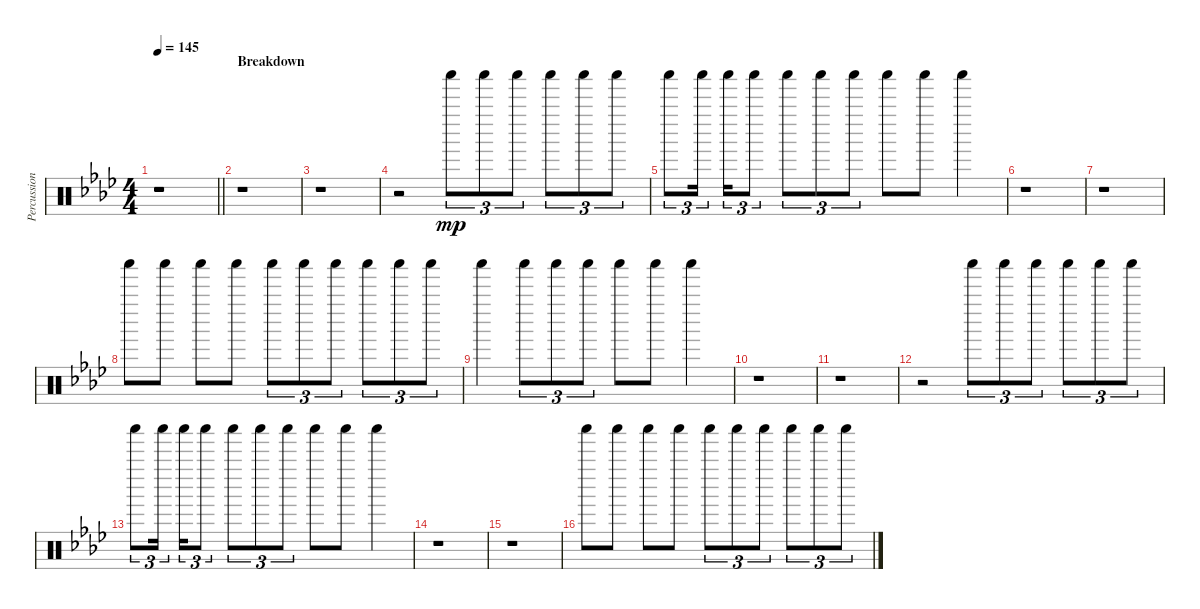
\track ("Percussion Synth" "Percussion") {instrument percussion}
\staff {score}
\articulation defaults
\ts (4 4)
\tempo 145
\clef neutral
\barLineRight lightlight
\ks ab
r.1{dy mp} |
\section ("" "Breakdown")
r.1 |
r.1 |
r.2 "Shaker (hit)".8{tu (3 2)} "Shaker (hit)".8{tu (3 2)} "Shaker (hit)".8{tu (3 2)} "Shaker (hit)".8{tu (3 2)} "Shaker (hit)".8{tu (3 2)} "Shaker (hit)".8{tu (3 2)} |
"Shaker (hit)".8{tu (3 2)} "Shaker (hit)".16{tu (3 2)} "Shaker (hit)".16{tu (3 2)} "Shaker (hit)".8{tu (3 2)} "Shaker (hit)".8{tu (3 2)} "Shaker (hit)".8{tu (3 2)} "Shaker (hit)".8{tu (3 2)} "Shaker (hit)".8 "Shaker (hit)".8 "Shaker (hit)".4 |
r.1 |
r.1 |
"Shaker (hit)".8 "Shaker (hit)".8 "Shaker (hit)".8 "Shaker (hit)".8 "Shaker (hit)".8{tu (3 2)} "Shaker (hit)".8{tu (3 2)} "Shaker (hit)".8{tu (3 2)} "Shaker (hit)".8{tu (3 2)} "Shaker (hit)".8{tu (3 2)} "Shaker (hit)".8{tu (3 2)} |
"Shaker (hit)".4 "Shaker (hit)".8{tu (3 2)} "Shaker (hit)".8{tu (3 2)} "Shaker (hit)".8{tu (3 2)} "Shaker (hit)".8 "Shaker (hit)".8 "Shaker (hit)".4 |
r.1 |
r.1 |
r.2 "Shaker (hit)".8{tu (3 2)} "Shaker (hit)".8{tu (3 2)} "Shaker (hit)".8{tu (3 2)} "Shaker (hit)".8{tu (3 2)} "Shaker (hit)".8{tu (3 2)} "Shaker (hit)".8{tu (3 2)} |
"Shaker (hit)".8{tu (3 2)} "Shaker (hit)".16{tu (3 2)} "Shaker (hit)".16{tu (3 2)} "Shaker (hit)".8{tu (3 2)} "Shaker (hit)".8{tu (3 2)} "Shaker (hit)".8{tu (3 2)} "Shaker (hit)".8{tu (3 2)} "Shaker (hit)".8 "Shaker (hit)".8 "Shaker (hit)".4 |
r.1 |
r.1 |
"Shaker (hit)".8 "Shaker (hit)".8 "Shaker (hit)".8 "Shaker (hit)".8 "Shaker (hit)".8{tu (3 2)} "Shaker (hit)".8{tu (3 2)} "Shaker (hit)".8{tu (3 2)} "Shaker (hit)".8{tu (3 2)} "Shaker (hit)".8{tu (3 2)} "Shaker (hit)".8{tu (3 2)}
